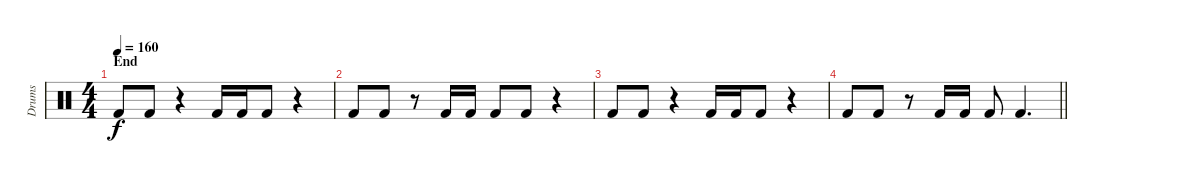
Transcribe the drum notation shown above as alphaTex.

\track ("Drums" "Drums") {instrument percussion}
\staff {score}
\articulation defaults
\ts (4 4)
\section ("" "End")
\tempo 160
\clef neutral
\ks c "Kick (hit) 2".8{dy f} "Kick (hit) 2".8
r.4 "Kick (hit) 2".16 "Kick (hit) 2".16 "Kick (hit) 2".8 r.4 |
"Kick (hit) 2".8 "Kick (hit) 2".8 r.8 "Kick (hit) 2".16 "Kick (hit) 2".16 "Kick (hit) 2".8 "Kick (hit) 2".8 r.4 |
"Kick (hit) 2".8 "Kick (hit) 2".8 r.4 "Kick (hit) 2".16 "Kick (hit) 2".16 "Kick (hit) 2".8 r.4 |
\barLineRight lightlight "Kick (hit) 2".8 "Kick (hit) 2".8
r.8 "Kick (hit) 2".16 "Kick (hit) 2".16 "Kick (hit) 2".8 "Kick (hit) 2".4{d}
